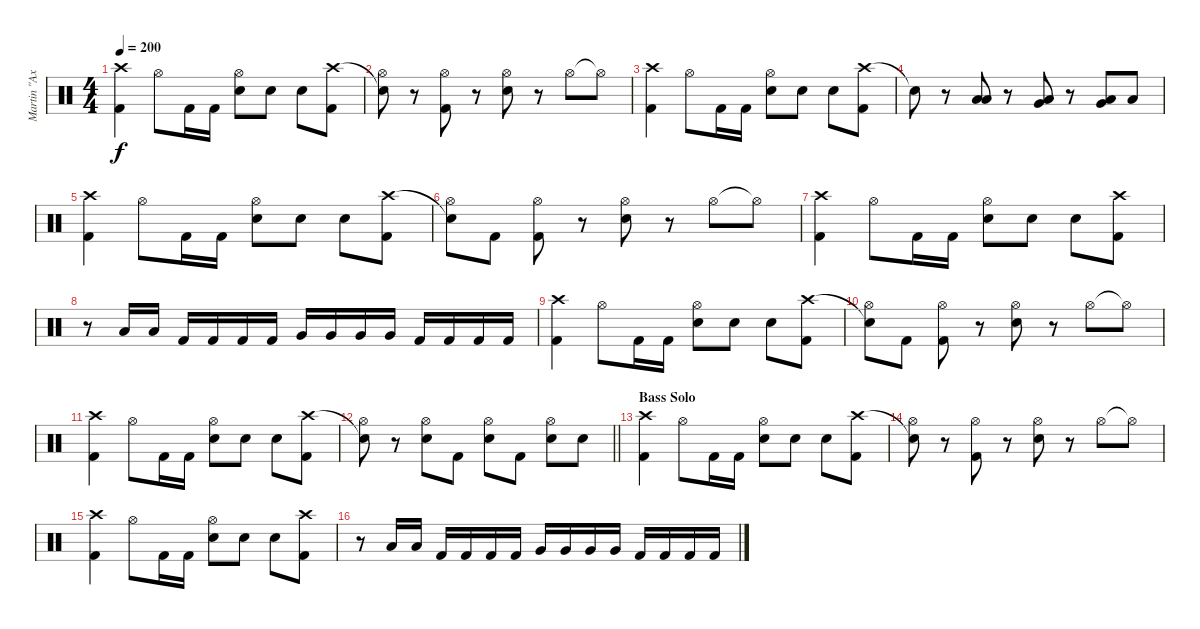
\track ("Martin \"Axe\" Axenrot" "Martin \"Ax") {instrument percussion}
\staff {score}
\articulation defaults
\ts (4 4)
\tempo 200
\clef neutral
\ks c
("Crash high (hit)" "Kick (hit) 2").4{dy f} "Hi-Hat (open)".8 "Kick (hit) 2".16 "Kick (hit) 2".16 ("Hi-Hat (open)" "Electric Snare (hit)").8 "Electric Snare (hit)".8 "Electric Snare (hit)".8 ("Crash high (hit)" "Kick (hit) 2").8 |
("Snare (hit)"{t} "Hi-Hat (open)").8 r.8 ("Hi-Hat (open)" "Kick (hit) 2").8 r.8 ("Hi-Hat (open)" "Electric Snare (hit)").8 r.8 "Hi-Hat (open)".8 "Hi-Hat (open)"{t}.8 |
("Crash high (hit)" "Kick (hit) 2").4 "Hi-Hat (open)".8 "Kick (hit) 2".16 "Kick (hit) 2".16 ("Hi-Hat (open)" "Electric Snare (hit)").8 "Electric Snare (hit)".8 "Electric Snare (hit)".8 ("Crash high (hit)" "Kick (hit) 2").8 |
"Snare (hit)"{t}.8 r.8 ("Low Tom (hit)" "Low Floor Tom (hit)").8 r.8 ("Very Low Tom (hit)" "Low Floor Tom (hit)").8 r.8 ("Very Low Tom (hit)" "Low Floor Tom (hit)").8 "Low Floor Tom (hit)".8 |
("Crash high (hit)" "Kick (hit) 2").4 "Hi-Hat (open)".8 "Kick (hit) 2".16 "Kick (hit) 2".16 ("Hi-Hat (open)" "Electric Snare (hit)").8 "Electric Snare (hit)".8 "Electric Snare (hit)".8 ("Crash high (hit)" "Kick (hit) 2").8 |
("Snare (hit)"{t} "Hi-Hat (open)").8 "Kick (hit) 2".8 ("Hi-Hat (open)" "Kick (hit) 2").8 r.8 ("Hi-Hat (open)" "Electric Snare (hit)").8 r.8 "Hi-Hat (open)".8 "Hi-Hat (open)"{t}.8 |
("Crash high (hit)" "Kick (hit) 2").4 "Hi-Hat (open)".8 "Kick (hit) 2".16 "Kick (hit) 2".16 ("Hi-Hat (open)" "Electric Snare (hit)").8 "Electric Snare (hit)".8 "Electric Snare (hit)".8 ("Crash high (hit)" "Kick (hit) 2").8 |
r.8 "Low Tom (hit)".16 "Low Tom (hit)".16 "Kick (hit) 2".16 "Kick (hit) 2".16 "Kick (hit) 2".16 "Kick (hit) 2".16 "Very Low Tom (hit)".16 "Very Low Tom (hit)".16 "Very Low Tom (hit)".16 "Very Low Tom (hit)".16 "Kick (hit) 2".16 "Kick (hit) 2".16 "Kick (hit) 2".16 "Kick (hit) 2".16 |
("Crash high (hit)" "Kick (hit) 2").4 "Hi-Hat (open)".8 "Kick (hit) 2".16 "Kick (hit) 2".16 ("Hi-Hat (open)" "Electric Snare (hit)").8 "Electric Snare (hit)".8 "Electric Snare (hit)".8 ("Crash high (hit)" "Kick (hit) 2").8 |
("Snare (hit)"{t} "Hi-Hat (open)").8 "Kick (hit) 2".8 ("Hi-Hat (open)" "Kick (hit) 2").8 r.8 ("Hi-Hat (open)" "Electric Snare (hit)").8 r.8 "Hi-Hat (open)".8 "Hi-Hat (open)"{t}.8 |
("Crash high (hit)" "Kick (hit) 2").4 "Hi-Hat (open)".8 "Kick (hit) 2".16 "Kick (hit) 2".16 ("Hi-Hat (open)" "Electric Snare (hit)").8 "Electric Snare (hit)".8 "Electric Snare (hit)".8 ("Crash high (hit)" "Kick (hit) 2").8 |
\barLineRight lightlight
("Snare (hit)"{t} "Hi-Hat (open)").8 r.8 ("Hi-Hat (open)" "Electric Snare (hit)").8 "Kick (hit) 2".8 ("Hi-Hat (open)" "Electric Snare (hit)").8 "Kick (hit) 2".8 ("Hi-Hat (open)" "Electric Snare (hit)").8 "Electric Snare (hit)".8 |
\section ("" "Bass Solo")
("Crash high (hit)" "Kick (hit) 2").4 "Hi-Hat (open)".8 "Kick (hit) 2".16 "Kick (hit) 2".16 ("Hi-Hat (open)" "Electric Snare (hit)").8 "Electric Snare (hit)".8 "Electric Snare (hit)".8 ("Crash high (hit)" "Kick (hit) 2").8 |
("Snare (hit)"{t} "Hi-Hat (open)").8 r.8 ("Hi-Hat (open)" "Kick (hit) 2").8 r.8 ("Hi-Hat (open)" "Electric Snare (hit)").8 r.8 "Hi-Hat (open)".8 "Hi-Hat (open)"{t}.8 |
("Crash high (hit)" "Kick (hit) 2").4 "Hi-Hat (open)".8 "Kick (hit) 2".16 "Kick (hit) 2".16 ("Hi-Hat (open)" "Electric Snare (hit)").8 "Electric Snare (hit)".8 "Electric Snare (hit)".8 ("Crash high (hit)" "Kick (hit) 2").8 |
r.8 "Low Tom (hit)".16 "Low Tom (hit)".16 "Kick (hit) 2".16 "Kick (hit) 2".16 "Kick (hit) 2".16 "Kick (hit) 2".16 "Very Low Tom (hit)".16 "Very Low Tom (hit)".16 "Very Low Tom (hit)".16 "Very Low Tom (hit)".16 "Kick (hit) 2".16 "Kick (hit) 2".16 "Kick (hit) 2".16 "Kick (hit) 2".16
